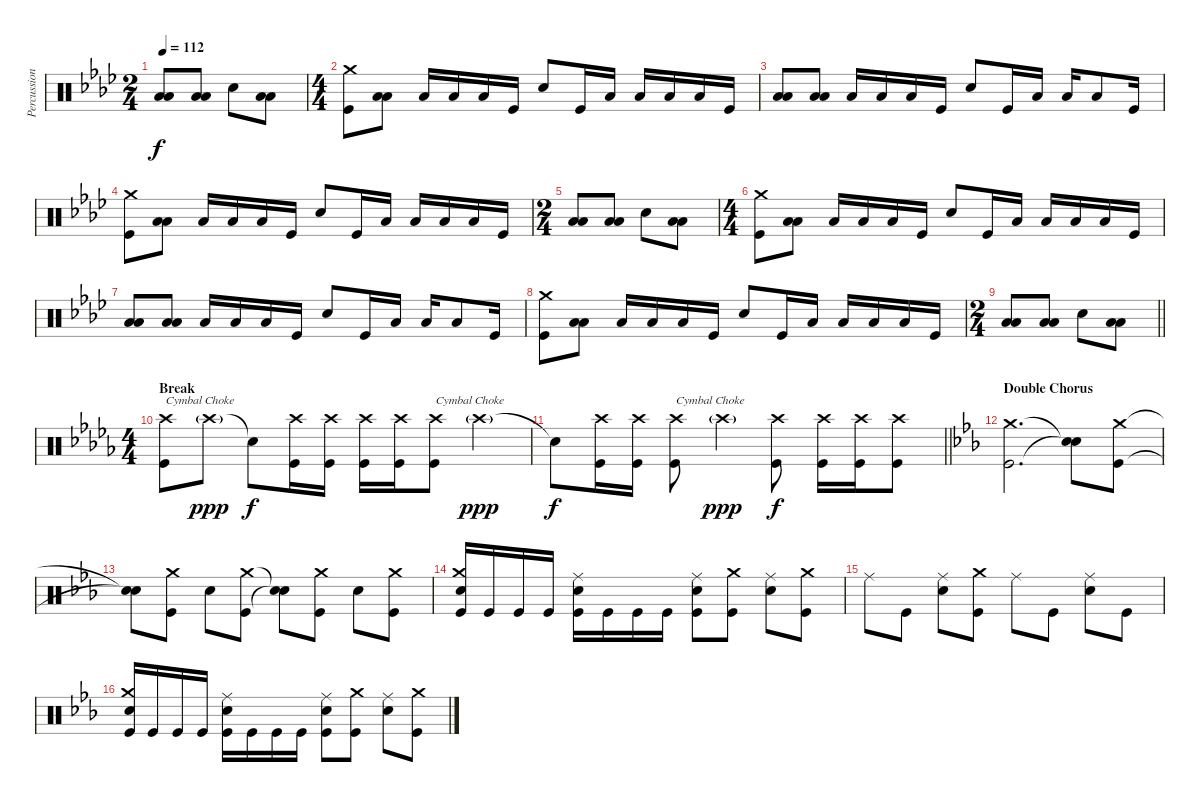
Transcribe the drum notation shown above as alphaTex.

\track ("Percussion" "Percussion") {instrument percussion}
\staff {score}
\articulation defaults
\ts (2 4)
\tempo 112
\clef neutral
\ks ab
("Low Tom (hit)" "Low Floor Tom (hit)").8{dy f} ("Low Tom (hit)" "Low Floor Tom (hit)").8 "Electric Snare (hit)".8 ("Low Tom (hit)" "Low Floor Tom (hit)").8 |
\ts (4 4)
("Crash medium (hit)" "Kick (hit)").8 ("Low Tom (hit)" "Low Floor Tom (hit)").8 "Low Floor Tom (hit)".16 "Low Tom (hit)".16 "Low Floor Tom (hit)".16 "Kick (hit)".16 "Electric Snare (hit)".8 "Kick (hit)".16 "Low Tom (hit)".16 "Low Floor Tom (hit)".16 "Low Tom (hit)".16 "Low Floor Tom (hit)".16 "Kick (hit)".16 |
("Low Tom (hit)" "Low Floor Tom (hit)").8 ("Low Tom (hit)" "Low Floor Tom (hit)").8 "Low Floor Tom (hit)".16 "Low Tom (hit)".16 "Low Floor Tom (hit)".16 "Kick (hit)".16 "Electric Snare (hit)".8 "Kick (hit)".16 "Low Tom (hit)".16 "Low Floor Tom (hit)".16 "Low Tom (hit)".8 "Kick (hit)".16 |
("Crash medium (hit)" "Kick (hit)").8 ("Low Tom (hit)" "Low Floor Tom (hit)").8 "Low Floor Tom (hit)".16 "Low Tom (hit)".16 "Low Floor Tom (hit)".16 "Kick (hit)".16 "Electric Snare (hit)".8 "Kick (hit)".16 "Low Tom (hit)".16 "Low Floor Tom (hit)".16 "Low Tom (hit)".16 "Low Floor Tom (hit)".16 "Kick (hit)".16 |
\ts (2 4)
("Low Tom (hit)" "Low Floor Tom (hit)").8 ("Low Tom (hit)" "Low Floor Tom (hit)").8 "Electric Snare (hit)".8 ("Low Tom (hit)" "Low Floor Tom (hit)").8 |
\ts (4 4)
("Crash medium (hit)" "Kick (hit)").8 ("Low Tom (hit)" "Low Floor Tom (hit)").8 "Low Floor Tom (hit)".16 "Low Tom (hit)".16 "Low Floor Tom (hit)".16 "Kick (hit)".16 "Electric Snare (hit)".8 "Kick (hit)".16 "Low Tom (hit)".16 "Low Floor Tom (hit)".16 "Low Tom (hit)".16 "Low Floor Tom (hit)".16 "Kick (hit)".16 |
("Low Tom (hit)" "Low Floor Tom (hit)").8 ("Low Tom (hit)" "Low Floor Tom (hit)").8 "Low Floor Tom (hit)".16 "Low Tom (hit)".16 "Low Floor Tom (hit)".16 "Kick (hit)".16 "Electric Snare (hit)".8 "Kick (hit)".16 "Low Tom (hit)".16 "Low Floor Tom (hit)".16 "Low Tom (hit)".8 "Kick (hit)".16 |
("Crash medium (hit)" "Kick (hit)").8 ("Low Tom (hit)" "Low Floor Tom (hit)").8 "Low Floor Tom (hit)".16 "Low Tom (hit)".16 "Low Floor Tom (hit)".16 "Kick (hit)".16 "Electric Snare (hit)".8 "Kick (hit)".16 "Low Tom (hit)".16 "Low Floor Tom (hit)".16 "Low Tom (hit)".16 "Low Floor Tom (hit)".16 "Kick (hit)".16 |
\ts (2 4)
\barLineRight lightlight
("Low Tom (hit)" "Low Floor Tom (hit)").8 ("Low Tom (hit)" "Low Floor Tom (hit)").8 "Electric Snare (hit)".8 ("Low Tom (hit)" "Low Floor Tom (hit)").8 |
\ts (4 4)
\section ("" "Break")
\ks db
("Crash high (hit)" "Kick (hit)").8{txt "Cymbal Choke"} "Crash high (hit)"{g}.8{dy ppp volume 0} "Snare (hit)"{t}.8{dy f} ("Crash high (hit)" "Kick (hit)").16{volume 13} ("Crash high (hit)" "Kick (hit)").16 ("Crash high (hit)" "Kick (hit)").16 ("Crash high (hit)" "Kick (hit)").16 ("Crash high (hit)" "Kick (hit)").8{txt "Cymbal Choke"} "Crash high (hit)"{g}.4{dy ppp volume 0} |
\barLineRight lightlight "Snare (hit)"{t}.8{dy f}
("Crash high (hit)" "Kick (hit)").16{volume 13} ("Crash high (hit)" "Kick (hit)").16 ("Crash high (hit)" "Kick (hit)").8{txt "Cymbal Choke"} "Crash high (hit)"{g}.4{dy ppp volume 0} ("Crash high (hit)" "Kick (hit)").8{dy f volume 13} ("Crash high (hit)" "Kick (hit)").16 ("Crash high (hit)" "Kick (hit)").16 ("Crash high (hit)" "Kick (hit)").8 |
\section ("" "Double Chorus")
\ks eb
("Crash medium (hit)" "Kick (hit)").2{d} ("Snare (hit)"{t} "Snare (hit)"{t}).8 ("Crash medium (hit)" "Kick (hit)").8 |
("Snare (hit)"{t} "Snare (hit)"{t}).8 ("Crash medium (hit)" "Kick (hit)").8 "Electric Snare (hit)".8 ("Crash medium (hit)" "Kick (hit)").8 ("Snare (hit)"{t} "Snare (hit)"{t}).8 ("Crash medium (hit)" "Kick (hit)").8 "Electric Snare (hit)".8 ("Crash medium (hit)" "Kick (hit)").8 |
("Crash medium (hit)" "Electric Snare (hit)" "Kick (hit)").16 "Kick (hit)".16 "Kick (hit)".16 "Kick (hit)".16 ("Ride (middle)" "Electric Snare (hit)" "Kick (hit)").16 "Kick (hit)".16 "Kick (hit)".16 "Kick (hit)".16 ("Ride (middle)" "Electric Snare (hit)" "Kick (hit)").8 ("Crash medium (hit)" "Kick (hit)").8 ("Ride (middle)" "Electric Snare (hit)").8 ("Crash medium (hit)" "Kick (hit)").8 |
"Ride (middle)".8 "Kick (hit)".8 ("Ride (middle)" "Electric Snare (hit)").8 ("Crash medium (hit)" "Kick (hit)").8 "Ride (middle)".8 "Kick (hit)".8 ("Ride (middle)" "Electric Snare (hit)").8 "Kick (hit)".8 |
("Crash medium (hit)" "Electric Snare (hit)" "Kick (hit)").16 "Kick (hit)".16 "Kick (hit)".16 "Kick (hit)".16 ("Ride (middle)" "Electric Snare (hit)" "Kick (hit)").16 "Kick (hit)".16 "Kick (hit)".16 "Kick (hit)".16 ("Ride (middle)" "Electric Snare (hit)" "Kick (hit)").8 ("Crash medium (hit)" "Kick (hit)").8 ("Ride (middle)" "Electric Snare (hit)").8 ("Crash medium (hit)" "Kick (hit)").8
